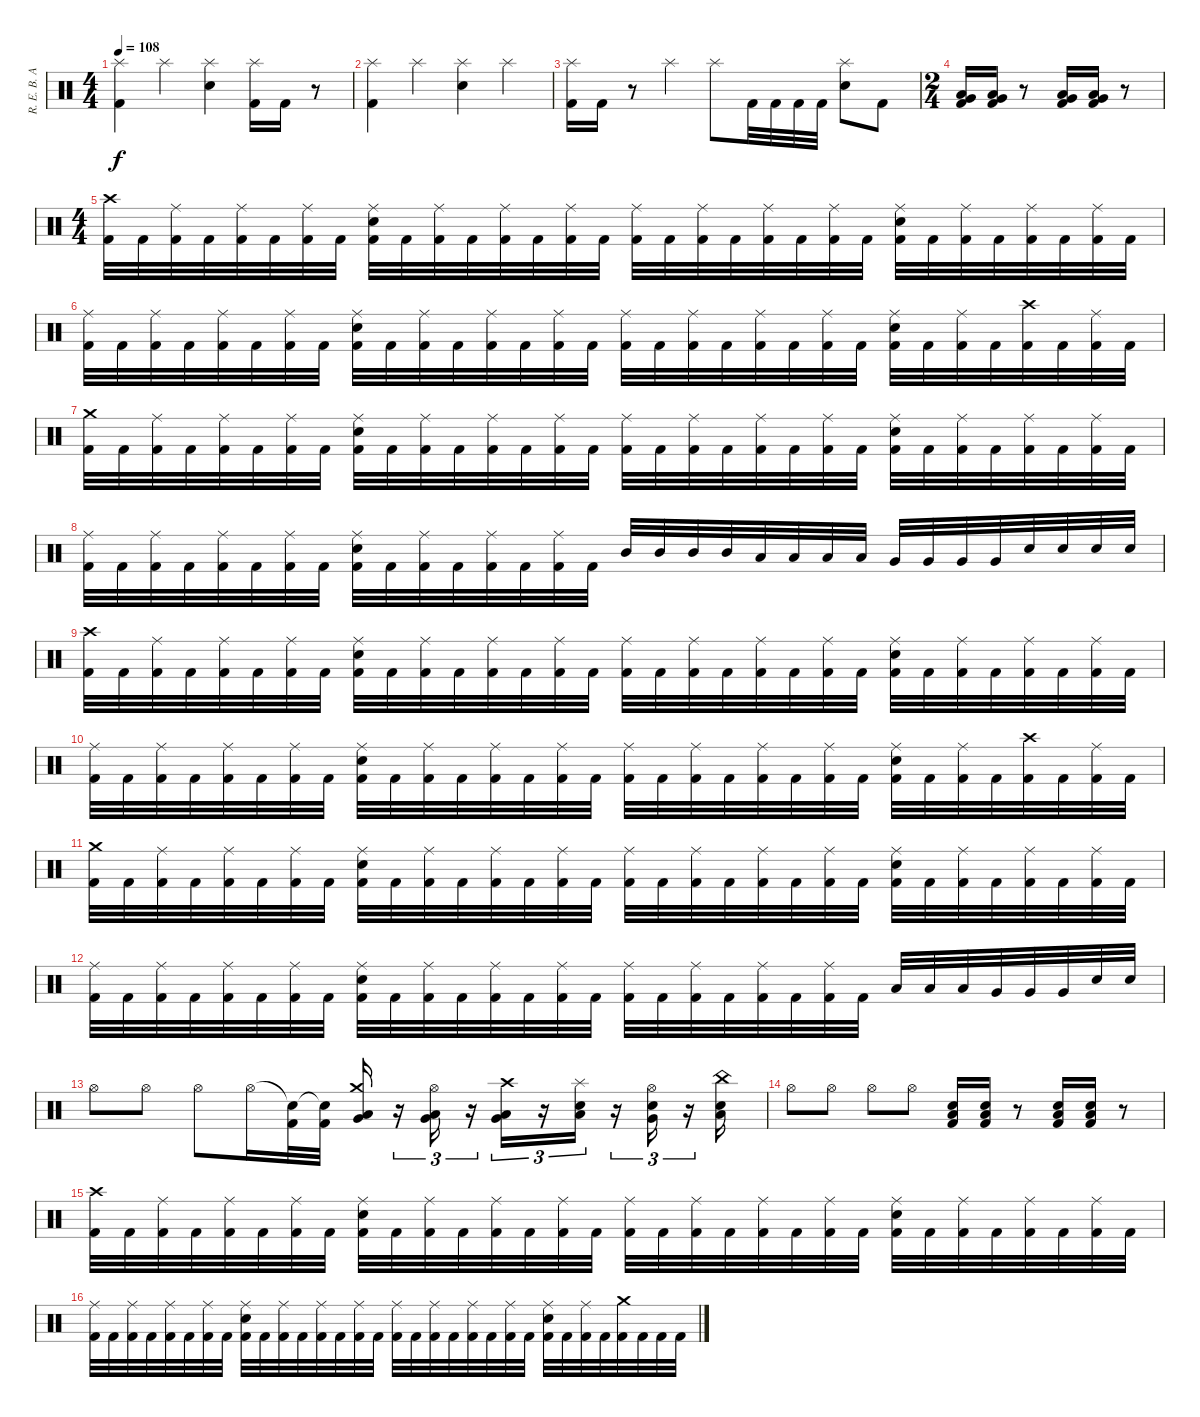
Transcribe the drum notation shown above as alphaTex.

\track ("R. E. B. A." "R. E. B. A") {instrument percussion}
\staff {score}
\articulation defaults
\ts (4 4)
\tempo 108
\clef neutral
\ks c
("Splash (hit)" "Kick (hit) 2").4{dy f} "Splash (hit)".4 ("Splash (hit)" "Snare (hit) 2").4 ("Splash (hit)" "Kick (hit) 2").16 "Kick (hit) 2".16 r.8 |
("Splash (hit)" "Kick (hit) 2").4 "Splash (hit)".4 ("Splash (hit)" "Snare (hit) 2").4 "Splash (hit)".4 |
("Splash (hit)" "Kick (hit) 2").16 "Kick (hit) 2".16 r.8 "Splash (hit)".4 "Splash (hit)".8 "Kick (hit) 2".32 "Kick (hit) 2".32 "Kick (hit) 2".32 "Kick (hit) 2".32 ("Splash (hit)" "Snare (hit) 2").8 "Kick (hit) 2".8 |
\ts (2 4)
("Very Low Tom (hit)" "Low Floor Tom (hit)" "Kick (hit) 2").16 ("Very Low Tom (hit)" "Low Floor Tom (hit)" "Kick (hit) 2").16 r.8 ("Very Low Tom (hit)" "Low Floor Tom (hit)" "Kick (hit) 2").16 ("Very Low Tom (hit)" "Low Floor Tom (hit)" "Kick (hit) 2").16 r.8 |
\ts (4 4)
("Crash high (hit)" "Kick (hit) 2").32 "Kick (hit) 2".32 ("Ride (middle)" "Kick (hit) 2").32 "Kick (hit) 2".32 ("Ride (middle)" "Kick (hit) 2").32 "Kick (hit) 2".32 ("Ride (middle)" "Kick (hit) 2").32 "Kick (hit) 2".32 ("Ride (middle)" "Snare (hit) 2" "Kick (hit) 2").32 "Kick (hit) 2".32 ("Ride (middle)" "Kick (hit) 2").32 "Kick (hit) 2".32 ("Ride (middle)" "Kick (hit) 2").32 "Kick (hit) 2".32 ("Ride (middle)" "Kick (hit) 2").32 "Kick (hit) 2".32 ("Ride (middle)" "Kick (hit) 2").32 "Kick (hit) 2".32 ("Ride (middle)" "Kick (hit) 2").32 "Kick (hit) 2".32 ("Ride (middle)" "Kick (hit) 2").32 "Kick (hit) 2".32 ("Ride (middle)" "Kick (hit) 2").32 "Kick (hit) 2".32 ("Ride (middle)" "Snare (hit) 2" "Kick (hit) 2").32 "Kick (hit) 2".32 ("Ride (middle)" "Kick (hit) 2").32 "Kick (hit) 2".32 ("Ride (middle)" "Kick (hit) 2").32 "Kick (hit) 2".32 ("Ride (middle)" "Kick (hit) 2").32 "Kick (hit) 2".32 |
("Ride (middle)" "Kick (hit) 2").32 "Kick (hit) 2".32 ("Ride (middle)" "Kick (hit) 2").32 "Kick (hit) 2".32 ("Ride (middle)" "Kick (hit) 2").32 "Kick (hit) 2".32 ("Ride (middle)" "Kick (hit) 2").32 "Kick (hit) 2".32 ("Ride (middle)" "Snare (hit) 2" "Kick (hit) 2").32 "Kick (hit) 2".32 ("Ride (middle)" "Kick (hit) 2").32 "Kick (hit) 2".32 ("Ride (middle)" "Kick (hit) 2").32 "Kick (hit) 2".32 ("Ride (middle)" "Kick (hit) 2").32 "Kick (hit) 2".32 ("Ride (middle)" "Kick (hit) 2").32 "Kick (hit) 2".32 ("Ride (middle)" "Kick (hit) 2").32 "Kick (hit) 2".32 ("Ride (middle)" "Kick (hit) 2").32 "Kick (hit) 2".32 ("Ride (middle)" "Kick (hit) 2").32 "Kick (hit) 2".32 ("Ride (middle)" "Snare (hit) 2" "Kick (hit) 2").32 "Kick (hit) 2".32 ("Ride (middle)" "Kick (hit) 2").32 "Kick (hit) 2".32 ("Crash high (hit)" "Kick (hit) 2").32 "Kick (hit) 2".32 ("Ride (middle)" "Kick (hit) 2").32 "Kick (hit) 2".32 |
("Crash medium (hit)" "Kick (hit) 2").32 "Kick (hit) 2".32 ("Ride (middle)" "Kick (hit) 2").32 "Kick (hit) 2".32 ("Ride (middle)" "Kick (hit) 2").32 "Kick (hit) 2".32 ("Ride (middle)" "Kick (hit) 2").32 "Kick (hit) 2".32 ("Ride (middle)" "Snare (hit) 2" "Kick (hit) 2").32 "Kick (hit) 2".32 ("Ride (middle)" "Kick (hit) 2").32 "Kick (hit) 2".32 ("Ride (middle)" "Kick (hit) 2").32 "Kick (hit) 2".32 ("Ride (middle)" "Kick (hit) 2").32 "Kick (hit) 2".32 ("Ride (middle)" "Kick (hit) 2").32 "Kick (hit) 2".32 ("Ride (middle)" "Kick (hit) 2").32 "Kick (hit) 2".32 ("Ride (middle)" "Kick (hit) 2").32 "Kick (hit) 2".32 ("Ride (middle)" "Kick (hit) 2").32 "Kick (hit) 2".32 ("Ride (middle)" "Snare (hit) 2" "Kick (hit) 2").32 "Kick (hit) 2".32 ("Ride (middle)" "Kick (hit) 2").32 "Kick (hit) 2".32 ("Ride (middle)" "Kick (hit) 2").32 "Kick (hit) 2".32 ("Ride (middle)" "Kick (hit) 2").32 "Kick (hit) 2".32 |
("Ride (middle)" "Kick (hit) 2").32 "Kick (hit) 2".32 ("Ride (middle)" "Kick (hit) 2").32 "Kick (hit) 2".32 ("Ride (middle)" "Kick (hit) 2").32 "Kick (hit) 2".32 ("Ride (middle)" "Kick (hit) 2").32 "Kick (hit) 2".32 ("Ride (middle)" "Snare (hit) 2" "Kick (hit) 2").32 "Kick (hit) 2".32 ("Ride (middle)" "Kick (hit) 2").32 "Kick (hit) 2".32 ("Ride (middle)" "Kick (hit) 2").32 "Kick (hit) 2".32 ("Ride (middle)" "Kick (hit) 2").32 "Kick (hit) 2".32 "Mid Tom (hit)".32 "Mid Tom (hit)".32 "Mid Tom (hit)".32 "Mid Tom (hit)".32 "Low Tom (hit)".32 "Low Tom (hit)".32 "Low Tom (hit)".32 "Low Tom (hit)".32 "Very Low Tom (hit)".32 "Very Low Tom (hit)".32 "Very Low Tom (hit)".32 "Very Low Tom (hit)".32 "Snare (hit) 2".32 "Snare (hit) 2".32 "Snare (hit) 2".32 "Snare (hit) 2".32 |
("Crash high (hit)" "Kick (hit) 2").32 "Kick (hit) 2".32 ("Ride (middle)" "Kick (hit) 2").32 "Kick (hit) 2".32 ("Ride (middle)" "Kick (hit) 2").32 "Kick (hit) 2".32 ("Ride (middle)" "Kick (hit) 2").32 "Kick (hit) 2".32 ("Ride (middle)" "Snare (hit) 2" "Kick (hit) 2").32 "Kick (hit) 2".32 ("Ride (middle)" "Kick (hit) 2").32 "Kick (hit) 2".32 ("Ride (middle)" "Kick (hit) 2").32 "Kick (hit) 2".32 ("Ride (middle)" "Kick (hit) 2").32 "Kick (hit) 2".32 ("Ride (middle)" "Kick (hit) 2").32 "Kick (hit) 2".32 ("Ride (middle)" "Kick (hit) 2").32 "Kick (hit) 2".32 ("Ride (middle)" "Kick (hit) 2").32 "Kick (hit) 2".32 ("Ride (middle)" "Kick (hit) 2").32 "Kick (hit) 2".32 ("Ride (middle)" "Snare (hit) 2" "Kick (hit) 2").32 "Kick (hit) 2".32 ("Ride (middle)" "Kick (hit) 2").32 "Kick (hit) 2".32 ("Ride (middle)" "Kick (hit) 2").32 "Kick (hit) 2".32 ("Ride (middle)" "Kick (hit) 2").32 "Kick (hit) 2".32 |
("Ride (middle)" "Kick (hit) 2").32 "Kick (hit) 2".32 ("Ride (middle)" "Kick (hit) 2").32 "Kick (hit) 2".32 ("Ride (middle)" "Kick (hit) 2").32 "Kick (hit) 2".32 ("Ride (middle)" "Kick (hit) 2").32 "Kick (hit) 2".32 ("Ride (middle)" "Snare (hit) 2" "Kick (hit) 2").32 "Kick (hit) 2".32 ("Ride (middle)" "Kick (hit) 2").32 "Kick (hit) 2".32 ("Ride (middle)" "Kick (hit) 2").32 "Kick (hit) 2".32 ("Ride (middle)" "Kick (hit) 2").32 "Kick (hit) 2".32 ("Ride (middle)" "Kick (hit) 2").32 "Kick (hit) 2".32 ("Ride (middle)" "Kick (hit) 2").32 "Kick (hit) 2".32 ("Ride (middle)" "Kick (hit) 2").32 "Kick (hit) 2".32 ("Ride (middle)" "Kick (hit) 2").32 "Kick (hit) 2".32 ("Ride (middle)" "Snare (hit) 2" "Kick (hit) 2").32 "Kick (hit) 2".32 ("Ride (middle)" "Kick (hit) 2").32 "Kick (hit) 2".32 ("Crash high (hit)" "Kick (hit) 2").32 "Kick (hit) 2".32 ("Ride (middle)" "Kick (hit) 2").32 "Kick (hit) 2".32 |
("Crash medium (hit)" "Kick (hit) 2").32 "Kick (hit) 2".32 ("Ride (middle)" "Kick (hit) 2").32 "Kick (hit) 2".32 ("Ride (middle)" "Kick (hit) 2").32 "Kick (hit) 2".32 ("Ride (middle)" "Kick (hit) 2").32 "Kick (hit) 2".32 ("Ride (middle)" "Snare (hit) 2" "Kick (hit) 2").32 "Kick (hit) 2".32 ("Ride (middle)" "Kick (hit) 2").32 "Kick (hit) 2".32 ("Ride (middle)" "Kick (hit) 2").32 "Kick (hit) 2".32 ("Ride (middle)" "Kick (hit) 2").32 "Kick (hit) 2".32 ("Ride (middle)" "Kick (hit) 2").32 "Kick (hit) 2".32 ("Ride (middle)" "Kick (hit) 2").32 "Kick (hit) 2".32 ("Ride (middle)" "Kick (hit) 2").32 "Kick (hit) 2".32 ("Ride (middle)" "Kick (hit) 2").32 "Kick (hit) 2".32 ("Ride (middle)" "Snare (hit) 2" "Kick (hit) 2").32 "Kick (hit) 2".32 ("Ride (middle)" "Kick (hit) 2").32 "Kick (hit) 2".32 ("Ride (middle)" "Kick (hit) 2").32 "Kick (hit) 2".32 ("Ride (middle)" "Kick (hit) 2").32 "Kick (hit) 2".32 |
("Ride (middle)" "Kick (hit) 2").32 "Kick (hit) 2".32 ("Ride (middle)" "Kick (hit) 2").32 "Kick (hit) 2".32 ("Ride (middle)" "Kick (hit) 2").32 "Kick (hit) 2".32 ("Ride (middle)" "Kick (hit) 2").32 "Kick (hit) 2".32 ("Ride (middle)" "Snare (hit) 2" "Kick (hit) 2").32 "Kick (hit) 2".32 ("Ride (middle)" "Kick (hit) 2").32 "Kick (hit) 2".32 ("Ride (middle)" "Kick (hit) 2").32 "Kick (hit) 2".32 ("Ride (middle)" "Kick (hit) 2").32 "Kick (hit) 2".32 ("Ride (middle)" "Kick (hit) 2").32 "Kick (hit) 2".32 ("Ride (middle)" "Kick (hit) 2").32 "Kick (hit) 2".32 ("Ride (middle)" "Kick (hit) 2").32 "Kick (hit) 2".32 ("Ride (middle)" "Kick (hit) 2").32 "Kick (hit) 2".32 "Low Tom (hit)".32 "Low Tom (hit)".32 "Low Tom (hit)".32 "Very Low Tom (hit)".32 "Very Low Tom (hit)".32 "Very Low Tom (hit)".32 "Snare (hit) 2".32 "Snare (hit) 2".32 |
"Hi-Hat (open)".8 "Hi-Hat (open)".8 "Hi-Hat (open)".8 "Hi-Hat (open)".16 ("Snare (hit)"{t} "Kick (hit) 2").32 ("Snare (hit)"{t} "Kick (hit) 2").32 ("Crash medium (hit)" "Very Low Tom (hit)" "Low Tom (hit)").16 r.16{tu (3 2)} ("Hi-Hat (open)" "Very Low Tom (hit)" "Low Tom (hit)").16{tu (3 2)} r.16{tu (3 2)} ("Crash high (hit)" "Very Low Tom (hit)" "Low Floor Tom (hit)").16{tu (3 2)} r.16{tu (3 2)} ("Splash (hit)" "Low Tom (hit)" "Snare (hit) 2").16{tu (3 2)} r.16{tu (3 2)} ("Hi-Hat (open)" "Very Low Tom (hit)" "Snare (hit) 2").16{tu (3 2)} r.16{tu (3 2)} ("China (hit)" "Low Floor Tom (hit)" "Snare (hit) 2").16 |
"Hi-Hat (open)".8 "Hi-Hat (open)".8 "Hi-Hat (open)".8 "Hi-Hat (open)".8 ("Snare (hit) 2" "Low Floor Tom (hit)" "Kick (hit) 2").16 ("Snare (hit) 2" "Low Floor Tom (hit)" "Kick (hit) 2").16 r.8 ("Snare (hit) 2" "Low Floor Tom (hit)" "Kick (hit) 2").16 ("Snare (hit) 2" "Low Floor Tom (hit)" "Kick (hit) 2").16 r.8 |
("Crash high (hit)" "Kick (hit) 2").32 "Kick (hit) 2".32 ("Ride (middle)" "Kick (hit) 2").32 "Kick (hit) 2".32 ("Ride (middle)" "Kick (hit) 2").32 "Kick (hit) 2".32 ("Ride (middle)" "Kick (hit) 2").32 "Kick (hit) 2".32 ("Ride (middle)" "Snare (hit) 2" "Kick (hit) 2").32 "Kick (hit) 2".32 ("Ride (middle)" "Kick (hit) 2").32 "Kick (hit) 2".32 ("Ride (middle)" "Kick (hit) 2").32 "Kick (hit) 2".32 ("Ride (middle)" "Kick (hit) 2").32 "Kick (hit) 2".32 ("Ride (middle)" "Kick (hit) 2").32 "Kick (hit) 2".32 ("Ride (middle)" "Kick (hit) 2").32 "Kick (hit) 2".32 ("Ride (middle)" "Kick (hit) 2").32 "Kick (hit) 2".32 ("Ride (middle)" "Kick (hit) 2").32 "Kick (hit) 2".32 ("Ride (middle)" "Snare (hit) 2" "Kick (hit) 2").32 "Kick (hit) 2".32 ("Ride (middle)" "Kick (hit) 2").32 "Kick (hit) 2".32 ("Ride (middle)" "Kick (hit) 2").32 "Kick (hit) 2".32 ("Ride (middle)" "Kick (hit) 2").32 "Kick (hit) 2".32 |
("Ride (middle)" "Kick (hit) 2").32 "Kick (hit) 2".32 ("Ride (middle)" "Kick (hit) 2").32 "Kick (hit) 2".32 ("Ride (middle)" "Kick (hit) 2").32 "Kick (hit) 2".32 ("Ride (middle)" "Kick (hit) 2").32 "Kick (hit) 2".32 ("Ride (middle)" "Snare (hit) 2" "Kick (hit) 2").32 "Kick (hit) 2".32 ("Ride (middle)" "Kick (hit) 2").32 "Kick (hit) 2".32 ("Ride (middle)" "Kick (hit) 2").32 "Kick (hit) 2".32 ("Ride (middle)" "Kick (hit) 2").32 "Kick (hit) 2".32 ("Ride (middle)" "Kick (hit) 2").32 "Kick (hit) 2".32 ("Ride (middle)" "Kick (hit) 2").32 "Kick (hit) 2".32 ("Ride (middle)" "Kick (hit) 2").32 "Kick (hit) 2".32 ("Ride (middle)" "Kick (hit) 2").32 "Kick (hit) 2".32 ("Ride (middle)" "Snare (hit) 2" "Kick (hit) 2").32 "Kick (hit) 2".32 ("Ride (middle)" "Kick (hit) 2").32 "Kick (hit) 2".32 ("Crash medium (hit)" "Kick (hit) 2").32 "Kick (hit) 2".32 "Kick (hit) 2".32 "Kick (hit) 2".32
